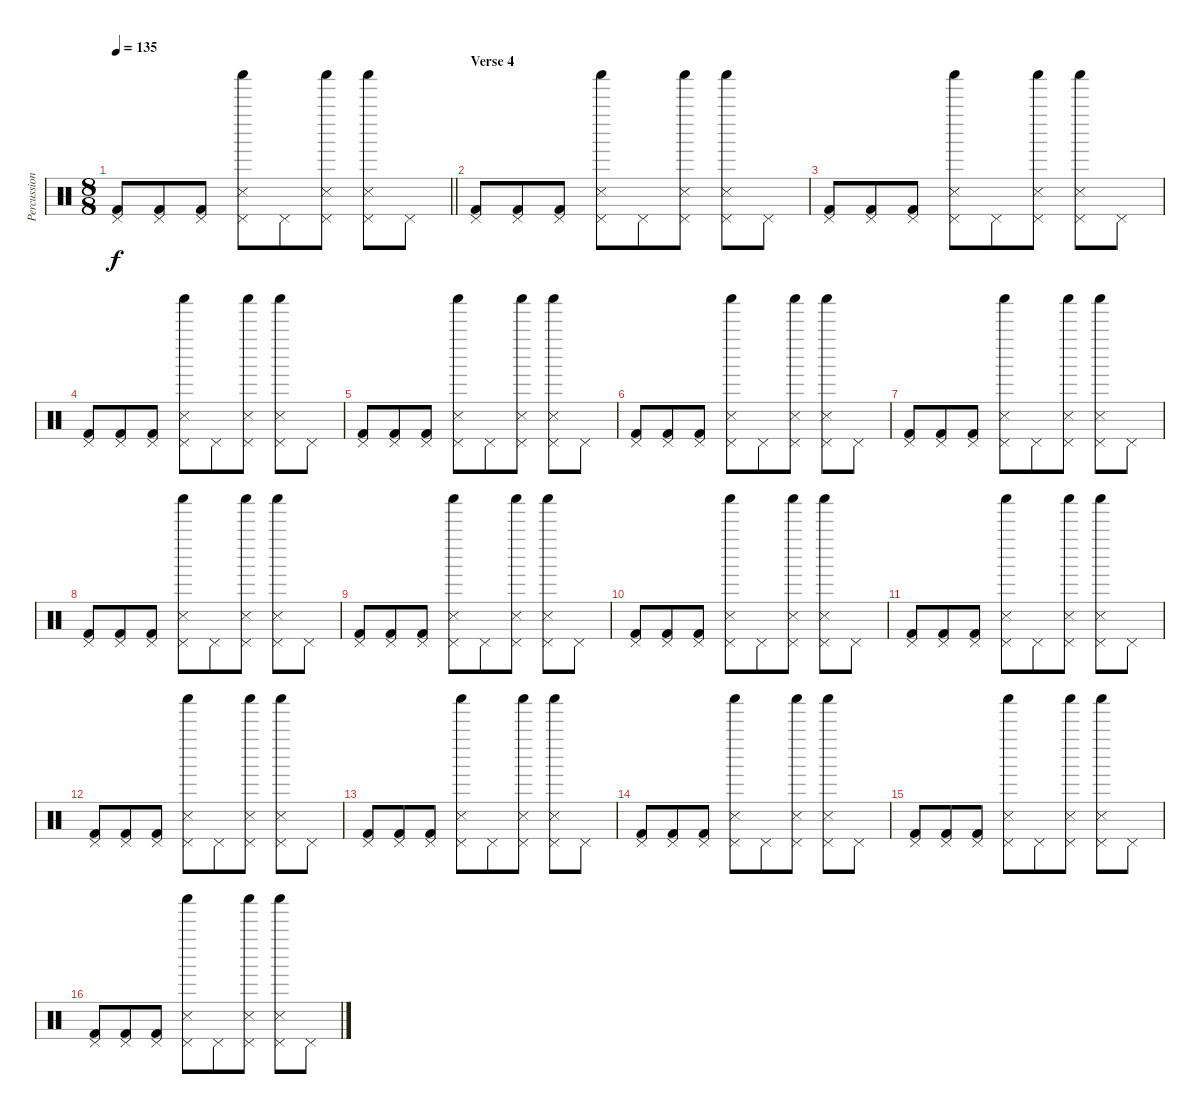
\track ("Percussion" "Percussion") {instrument percussion}
\staff {score}
\articulation defaults
\ts (8 8)
\tempo 135
\clef neutral
\barLineRight lightlight
\ks c
("Kick (hit) 2" "Pedal Hi-Hat (hit)").8{dy f} ("Kick (hit) 2" "Pedal Hi-Hat (hit)").8 ("Kick (hit) 2" "Pedal Hi-Hat (hit)").8 ("Metronome (hit)" "Shaker (hit)" "Pedal Hi-Hat (hit)").8 "Pedal Hi-Hat (hit)".8 ("Metronome (hit)" "Shaker (hit)" "Pedal Hi-Hat (hit)").8 ("Metronome (hit)" "Shaker (hit)" "Pedal Hi-Hat (hit)").8 "Pedal Hi-Hat (hit)".8 |
\section ("" "Verse 4")
("Kick (hit) 2" "Pedal Hi-Hat (hit)").8 ("Kick (hit) 2" "Pedal Hi-Hat (hit)").8 ("Kick (hit) 2" "Pedal Hi-Hat (hit)").8 ("Metronome (hit)" "Shaker (hit)" "Pedal Hi-Hat (hit)").8 "Pedal Hi-Hat (hit)".8 ("Metronome (hit)" "Shaker (hit)" "Pedal Hi-Hat (hit)").8 ("Metronome (hit)" "Shaker (hit)" "Pedal Hi-Hat (hit)").8 "Pedal Hi-Hat (hit)".8 |
("Kick (hit) 2" "Pedal Hi-Hat (hit)").8 ("Kick (hit) 2" "Pedal Hi-Hat (hit)").8 ("Kick (hit) 2" "Pedal Hi-Hat (hit)").8 ("Metronome (hit)" "Shaker (hit)" "Pedal Hi-Hat (hit)").8 "Pedal Hi-Hat (hit)".8 ("Metronome (hit)" "Shaker (hit)" "Pedal Hi-Hat (hit)").8 ("Metronome (hit)" "Shaker (hit)" "Pedal Hi-Hat (hit)").8 "Pedal Hi-Hat (hit)".8 |
("Kick (hit) 2" "Pedal Hi-Hat (hit)").8 ("Kick (hit) 2" "Pedal Hi-Hat (hit)").8 ("Kick (hit) 2" "Pedal Hi-Hat (hit)").8 ("Metronome (hit)" "Shaker (hit)" "Pedal Hi-Hat (hit)").8 "Pedal Hi-Hat (hit)".8 ("Metronome (hit)" "Shaker (hit)" "Pedal Hi-Hat (hit)").8 ("Metronome (hit)" "Shaker (hit)" "Pedal Hi-Hat (hit)").8 "Pedal Hi-Hat (hit)".8 |
("Kick (hit) 2" "Pedal Hi-Hat (hit)").8 ("Kick (hit) 2" "Pedal Hi-Hat (hit)").8 ("Kick (hit) 2" "Pedal Hi-Hat (hit)").8 ("Metronome (hit)" "Shaker (hit)" "Pedal Hi-Hat (hit)").8 "Pedal Hi-Hat (hit)".8 ("Metronome (hit)" "Shaker (hit)" "Pedal Hi-Hat (hit)").8 ("Metronome (hit)" "Shaker (hit)" "Pedal Hi-Hat (hit)").8 "Pedal Hi-Hat (hit)".8 |
("Kick (hit) 2" "Pedal Hi-Hat (hit)").8 ("Kick (hit) 2" "Pedal Hi-Hat (hit)").8 ("Kick (hit) 2" "Pedal Hi-Hat (hit)").8 ("Metronome (hit)" "Shaker (hit)" "Pedal Hi-Hat (hit)").8 "Pedal Hi-Hat (hit)".8 ("Metronome (hit)" "Shaker (hit)" "Pedal Hi-Hat (hit)").8 ("Metronome (hit)" "Shaker (hit)" "Pedal Hi-Hat (hit)").8 "Pedal Hi-Hat (hit)".8 |
("Kick (hit) 2" "Pedal Hi-Hat (hit)").8 ("Kick (hit) 2" "Pedal Hi-Hat (hit)").8 ("Kick (hit) 2" "Pedal Hi-Hat (hit)").8 ("Metronome (hit)" "Shaker (hit)" "Pedal Hi-Hat (hit)").8 "Pedal Hi-Hat (hit)".8 ("Metronome (hit)" "Shaker (hit)" "Pedal Hi-Hat (hit)").8 ("Metronome (hit)" "Shaker (hit)" "Pedal Hi-Hat (hit)").8 "Pedal Hi-Hat (hit)".8 |
("Kick (hit) 2" "Pedal Hi-Hat (hit)").8 ("Kick (hit) 2" "Pedal Hi-Hat (hit)").8 ("Kick (hit) 2" "Pedal Hi-Hat (hit)").8 ("Metronome (hit)" "Shaker (hit)" "Pedal Hi-Hat (hit)").8 "Pedal Hi-Hat (hit)".8 ("Metronome (hit)" "Shaker (hit)" "Pedal Hi-Hat (hit)").8 ("Metronome (hit)" "Shaker (hit)" "Pedal Hi-Hat (hit)").8 "Pedal Hi-Hat (hit)".8 |
("Kick (hit) 2" "Pedal Hi-Hat (hit)").8 ("Kick (hit) 2" "Pedal Hi-Hat (hit)").8 ("Kick (hit) 2" "Pedal Hi-Hat (hit)").8 ("Metronome (hit)" "Shaker (hit)" "Pedal Hi-Hat (hit)").8 "Pedal Hi-Hat (hit)".8 ("Metronome (hit)" "Shaker (hit)" "Pedal Hi-Hat (hit)").8 ("Metronome (hit)" "Shaker (hit)" "Pedal Hi-Hat (hit)").8 "Pedal Hi-Hat (hit)".8 |
("Kick (hit) 2" "Pedal Hi-Hat (hit)").8 ("Kick (hit) 2" "Pedal Hi-Hat (hit)").8 ("Kick (hit) 2" "Pedal Hi-Hat (hit)").8 ("Metronome (hit)" "Shaker (hit)" "Pedal Hi-Hat (hit)").8 "Pedal Hi-Hat (hit)".8 ("Metronome (hit)" "Shaker (hit)" "Pedal Hi-Hat (hit)").8 ("Metronome (hit)" "Shaker (hit)" "Pedal Hi-Hat (hit)").8 "Pedal Hi-Hat (hit)".8 |
("Kick (hit) 2" "Pedal Hi-Hat (hit)").8 ("Kick (hit) 2" "Pedal Hi-Hat (hit)").8 ("Kick (hit) 2" "Pedal Hi-Hat (hit)").8 ("Metronome (hit)" "Shaker (hit)" "Pedal Hi-Hat (hit)").8 "Pedal Hi-Hat (hit)".8 ("Metronome (hit)" "Shaker (hit)" "Pedal Hi-Hat (hit)").8 ("Metronome (hit)" "Shaker (hit)" "Pedal Hi-Hat (hit)").8 "Pedal Hi-Hat (hit)".8 |
("Kick (hit) 2" "Pedal Hi-Hat (hit)").8 ("Kick (hit) 2" "Pedal Hi-Hat (hit)").8 ("Kick (hit) 2" "Pedal Hi-Hat (hit)").8 ("Metronome (hit)" "Shaker (hit)" "Pedal Hi-Hat (hit)").8 "Pedal Hi-Hat (hit)".8 ("Metronome (hit)" "Shaker (hit)" "Pedal Hi-Hat (hit)").8 ("Metronome (hit)" "Shaker (hit)" "Pedal Hi-Hat (hit)").8 "Pedal Hi-Hat (hit)".8 |
("Kick (hit) 2" "Pedal Hi-Hat (hit)").8 ("Kick (hit) 2" "Pedal Hi-Hat (hit)").8 ("Kick (hit) 2" "Pedal Hi-Hat (hit)").8 ("Metronome (hit)" "Shaker (hit)" "Pedal Hi-Hat (hit)").8 "Pedal Hi-Hat (hit)".8 ("Metronome (hit)" "Shaker (hit)" "Pedal Hi-Hat (hit)").8 ("Metronome (hit)" "Shaker (hit)" "Pedal Hi-Hat (hit)").8 "Pedal Hi-Hat (hit)".8 |
("Kick (hit) 2" "Pedal Hi-Hat (hit)").8 ("Kick (hit) 2" "Pedal Hi-Hat (hit)").8 ("Kick (hit) 2" "Pedal Hi-Hat (hit)").8 ("Metronome (hit)" "Shaker (hit)" "Pedal Hi-Hat (hit)").8 "Pedal Hi-Hat (hit)".8 ("Metronome (hit)" "Shaker (hit)" "Pedal Hi-Hat (hit)").8 ("Metronome (hit)" "Shaker (hit)" "Pedal Hi-Hat (hit)").8 "Pedal Hi-Hat (hit)".8 |
("Kick (hit) 2" "Pedal Hi-Hat (hit)").8 ("Kick (hit) 2" "Pedal Hi-Hat (hit)").8 ("Kick (hit) 2" "Pedal Hi-Hat (hit)").8 ("Metronome (hit)" "Shaker (hit)" "Pedal Hi-Hat (hit)").8 "Pedal Hi-Hat (hit)".8 ("Metronome (hit)" "Shaker (hit)" "Pedal Hi-Hat (hit)").8 ("Metronome (hit)" "Shaker (hit)" "Pedal Hi-Hat (hit)").8 "Pedal Hi-Hat (hit)".8 |
("Kick (hit) 2" "Pedal Hi-Hat (hit)").8 ("Kick (hit) 2" "Pedal Hi-Hat (hit)").8 ("Kick (hit) 2" "Pedal Hi-Hat (hit)").8 ("Metronome (hit)" "Shaker (hit)" "Pedal Hi-Hat (hit)").8 "Pedal Hi-Hat (hit)".8 ("Metronome (hit)" "Shaker (hit)" "Pedal Hi-Hat (hit)").8 ("Metronome (hit)" "Shaker (hit)" "Pedal Hi-Hat (hit)").8 "Pedal Hi-Hat (hit)".8
